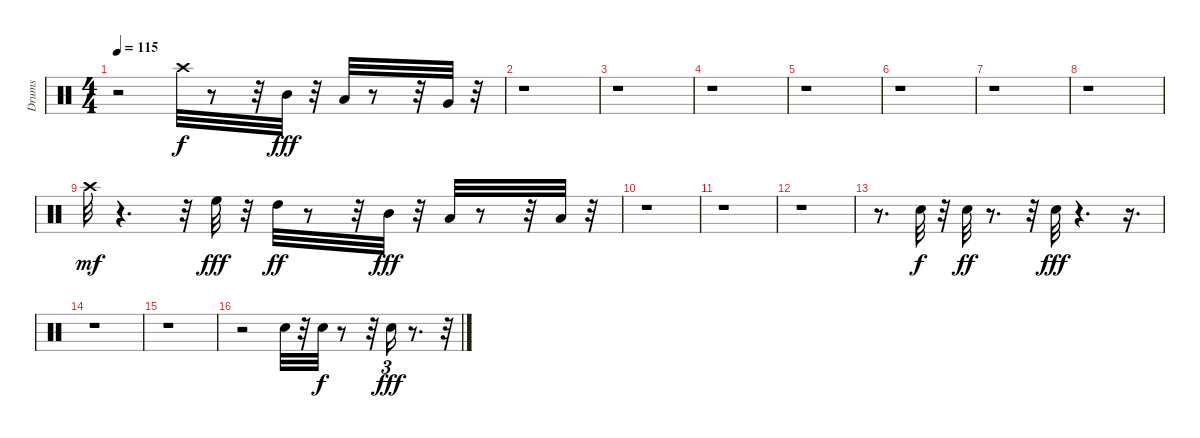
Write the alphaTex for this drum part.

\track ("Drums" "Drums") {instrument percussion}
\staff {score}
\articulation defaults
\ts (4 4)
\tempo 115
\clef neutral
\ks c
r.2{dy fff} "Crash high (hit)".32{dy f} r.8 r.32 "Mid Tom (hit)".32{dy fff} r.32 "Low Tom (hit)".32 r.8 r.32 "Very Low Tom (hit)".32 r.32 |
r.1 |
r.1 |
r.1 |
r.1 |
r.1 |
r.1 |
r.1 |
"Crash high (hit)".32{dy mf} r.4{d} r.32 "High Floor Tom (hit)".32{dy fff} r.32 "High Tom (hit)".32{dy ff} r.8 r.32 "Mid Tom (hit)".32{dy fff} r.32 "Low Tom (hit)".32 r.8 r.32 "Low Floor Tom (hit)".32 r.32 |
r.1 |
r.1 |
r.1 |
r.8{d} "Snare (hit) 2".32{dy f} r.32 "Snare (hit) 2".32{dy ff} r.8{d} r.32 "Snare (hit) 2".32{dy fff} r.4{d} r.16{d} |
r.1 |
r.1 |
r.2 "Snare (hit) 2".32 r.32 "Snare (hit) 2".32{dy f} r.8 r.32 "Snare (hit) 2".16{tu (3 2) dy fff} r.8{d} r.32{tu (3 2)}
